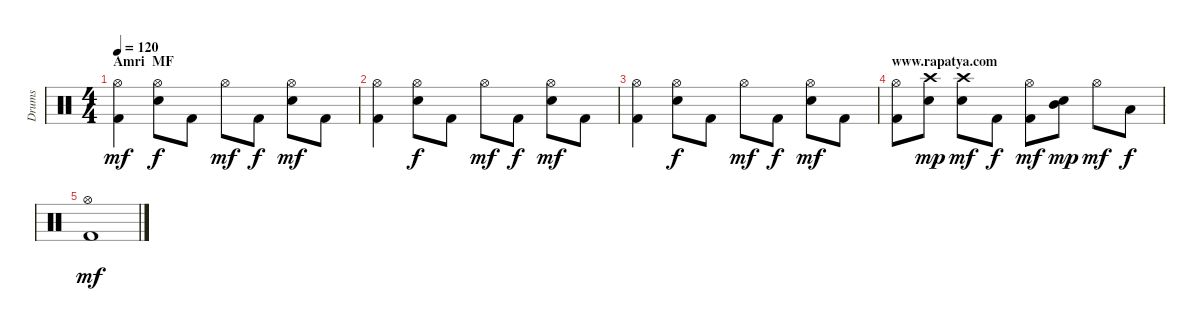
\track ("Drums" "Drums") {instrument percussion}
\staff {score}
\articulation defaults
\ts (4 4)
\section ("" "Amri  MF")
\tempo 120
\clef neutral
\ks c
("Kick (hit) 2" "Hi-Hat (open)").4{dy mf} ("Hi-Hat (open)" "Electric Snare (hit)").8{dy f} "Kick (hit) 2".8 "Hi-Hat (open)".8{dy mf} "Kick (hit) 2".8{dy f} ("Electric Snare (hit)" "Hi-Hat (open)").8{dy mf} "Kick (hit) 2".8 |
("Kick (hit) 2" "Hi-Hat (open)").4 ("Hi-Hat (open)" "Electric Snare (hit)").8{dy f} "Kick (hit) 2".8 "Hi-Hat (open)".8{dy mf} "Kick (hit) 2".8{dy f} ("Electric Snare (hit)" "Hi-Hat (open)").8{dy mf} "Kick (hit) 2".8 |
("Kick (hit) 2" "Hi-Hat (open)").4 ("Hi-Hat (open)" "Electric Snare (hit)").8{dy f} "Kick (hit) 2".8 "Hi-Hat (open)".8{dy mf} "Kick (hit) 2".8{dy f} ("Electric Snare (hit)" "Hi-Hat (open)").8{dy mf} "Kick (hit) 2".8 |
\section ("" "www.rapatya.com")
("Kick (hit) 2" "Hi-Hat (open)").8 ("Electric Snare (hit)" "Crash high (hit)").8{dy mp} ("Electric Snare (hit)" "Crash high (hit)").8{dy mf} "Kick (hit) 2".8{dy f} ("Kick (hit) 2" "Hi-Hat (open)").8{dy mf} ("Electric Snare (hit)" "Mid Tom (hit)").8{dy mp} "Hi-Hat (open)".8{dy mf} "Low Tom (hit)".8{dy f} |
("Kick (hit) 2" "Hi-Hat (open)").1{dy mf}
